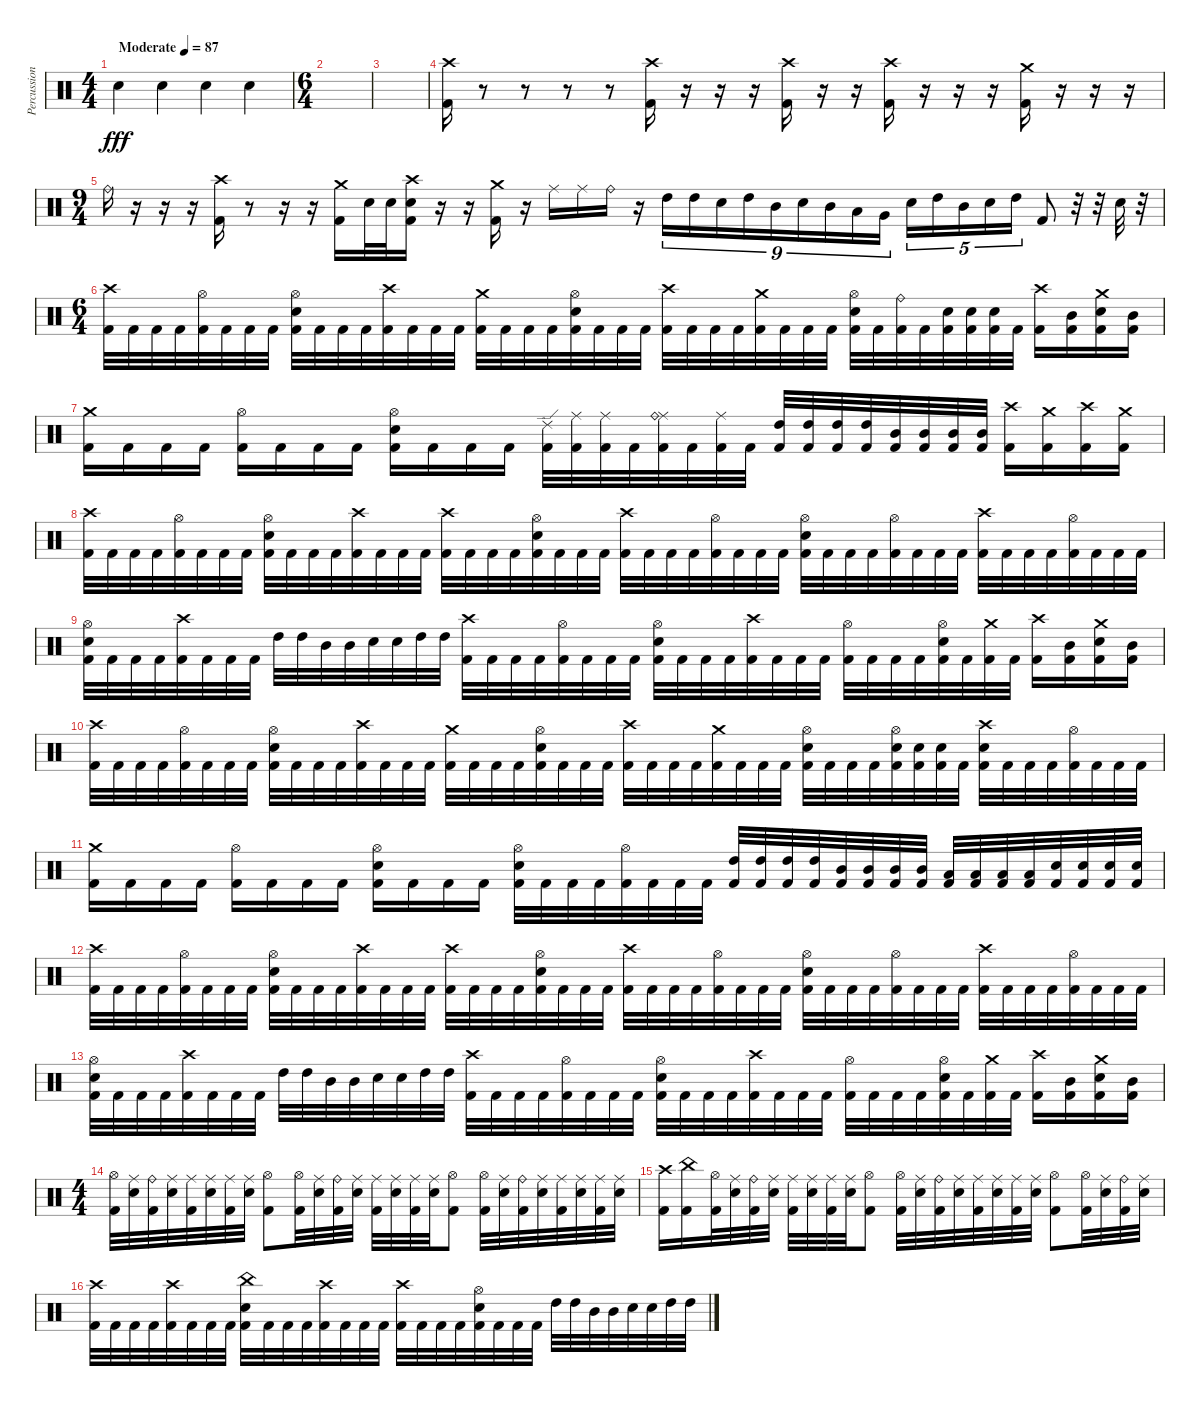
\track ("Percussion" "Percussion") {mute instrument percussion}
\staff {score}
\articulation defaults
\ts (4 4)
\tempo (87 "Moderate")
\clef neutral
\ks c "Electric Snare (hit)".4{dy fff} "Electric Snare (hit)".4 "Electric Snare (hit)".4 "Electric Snare (hit)".4
|
\ts (6 4)
|
|
("Crash high (hit)" "Kick (hit) 2").16 r.8 r.8 r.8 r.8 ("Crash high (hit)" "Kick (hit) 2").16 r.16 r.16 r.16 ("Crash high (hit)" "Kick (hit) 2").16 r.16 r.16 ("Crash high (hit)" "Kick (hit) 2").16 r.16 r.16 r.16 ("Crash medium (hit)" "Kick (hit) 2").16 r.16 r.16 r.16 |
\ts (9 4)
"Ride (bell)".16 r.16 r.16 r.16 ("Crash high (hit)" "Kick (hit) 2").16 r.8 r.16 r.16 ("Crash medium (hit)" "Kick (hit) 2").16 "Electric Snare (hit)".32 "Electric Snare (hit)".32 ("Electric Snare (hit)" "Crash high (hit)" "Kick (hit) 2").16 r.16 r.16 ("Crash medium (hit)" "Kick (hit) 2").16 r.16 "Ride (middle)".16 "Ride (middle)".16 "Ride (bell)".16 r.16 "High Tom (hit)".16{tu (9 8)} "High Tom (hit)".16{tu (9 8)} "Electric Snare (hit)".16{tu (9 8)} "High Tom (hit)".16{tu (9 8)} "Mid Tom (hit)".16{tu (9 8)} "Electric Snare (hit)".16{tu (9 8)} "Mid Tom (hit)".16{tu (9 8)} "Low Tom (hit)".16{tu (9 8)} "Very Low Tom (hit)".16{tu (9 8) beam splitsecondary} "Electric Snare (hit)".16{tu (5 4)} "High Tom (hit)".16{tu (5 4)} "Mid Tom (hit)".16{tu (5 4)} "Electric Snare (hit)".16{tu (5 4)} "High Tom (hit)".16{tu (5 4)} "Kick (hit) 2".8 r.32 r.32 "Electric Snare (hit)".32 r.32 |
\ts (6 4)
("Crash high (hit)" "Kick (hit) 2").32 "Kick (hit) 2".32 "Kick (hit) 2".32 "Kick (hit) 2".32 ("Hi-Hat (open)" "Kick (hit) 2").32 "Kick (hit) 2".32 "Kick (hit) 2".32 "Kick (hit) 2".32 ("Electric Snare (hit)" "Hi-Hat (open)" "Kick (hit) 2").32 "Kick (hit) 2".32 "Kick (hit) 2".32 "Kick (hit) 2".32 ("Crash high (hit)" "Kick (hit) 2").32 "Kick (hit) 2".32 "Kick (hit) 2".32 "Kick (hit) 2".32 ("Crash medium (hit)" "Kick (hit) 2").32 "Kick (hit) 2".32 "Kick (hit) 2".32 "Kick (hit) 2".32 ("Electric Snare (hit)" "Hi-Hat (open)" "Kick (hit) 2").32 "Kick (hit) 2".32 "Kick (hit) 2".32 "Kick (hit) 2".32 ("Crash high (hit)" "Kick (hit) 2").32 "Kick (hit) 2".32 "Kick (hit) 2".32 "Kick (hit) 2".32 ("Crash medium (hit)" "Kick (hit) 2").32 "Kick (hit) 2".32 "Kick (hit) 2".32 "Kick (hit) 2".32 ("Electric Snare (hit)" "Hi-Hat (open)" "Kick (hit) 2").32 "Kick (hit) 2".32 ("Ride (bell)" "Kick (hit) 2").32 "Kick (hit) 2".32 ("Electric Snare (hit)" "Kick (hit) 2").32 ("Electric Snare (hit)" "Kick (hit) 2").32 ("Electric Snare (hit)" "Kick (hit) 2").32 "Kick (hit) 2".32 ("Crash high (hit)" "Kick (hit) 2").16 ("Mid Tom (hit)" "Kick (hit) 2").16 ("Electric Snare (hit)" "Crash medium (hit)" "Kick (hit) 2").16 ("Mid Tom (hit)" "Kick (hit) 2").16 |
("Crash medium (hit)" "Kick (hit) 2").16 "Kick (hit) 2".16 "Kick (hit) 2".16 "Kick (hit) 2".16 ("Hi-Hat (open)" "Kick (hit) 2").16 "Kick (hit) 2".16 "Kick (hit) 2".16 "Kick (hit) 2".16 ("Electric Snare (hit)" "Hi-Hat (open)" "Kick (hit) 2").16 "Kick (hit) 2".16 "Kick (hit) 2".16 "Kick (hit) 2".16 ("Ride (edge) 2" "Kick (hit) 2").32 ("Ride (middle)" "Kick (hit) 2").32 ("Ride (middle)" "Kick (hit) 2").32 "Kick (hit) 2".32 ("Ride (middle)" "Ride (bell)" "Kick (hit) 2").32 "Kick (hit) 2".32 ("Ride (middle)" "Kick (hit) 2").32 "Kick (hit) 2".32 ("High Tom (hit)" "Kick (hit) 2").32 ("High Tom (hit)" "Kick (hit) 2").32 ("High Tom (hit)" "Kick (hit) 2").32 ("High Tom (hit)" "Kick (hit) 2").32 ("Mid Tom (hit)" "Kick (hit) 2").32 ("Mid Tom (hit)" "Kick (hit) 2").32 ("Mid Tom (hit)" "Kick (hit) 2").32 ("Mid Tom (hit)" "Kick (hit) 2").32 ("Crash high (hit)" "Kick (hit) 2").16 ("Crash medium (hit)" "Kick (hit) 2").16 ("Crash high (hit)" "Kick (hit) 2").16 ("Crash medium (hit)" "Kick (hit) 2").16 |
("Crash high (hit)" "Kick (hit) 2").32 "Kick (hit) 2".32 "Kick (hit) 2".32 "Kick (hit) 2".32 ("Hi-Hat (open)" "Kick (hit) 2").32 "Kick (hit) 2".32 "Kick (hit) 2".32 "Kick (hit) 2".32 ("Electric Snare (hit)" "Hi-Hat (open)" "Kick (hit) 2").32 "Kick (hit) 2".32 "Kick (hit) 2".32 "Kick (hit) 2".32 ("Crash high (hit)" "Kick (hit) 2").32 "Kick (hit) 2".32 "Kick (hit) 2".32 "Kick (hit) 2".32 ("Crash high (hit)" "Kick (hit) 2").32 "Kick (hit) 2".32 "Kick (hit) 2".32 "Kick (hit) 2".32 ("Electric Snare (hit)" "Hi-Hat (open)" "Kick (hit) 2").32 "Kick (hit) 2".32 "Kick (hit) 2".32 "Kick (hit) 2".32 ("Crash high (hit)" "Kick (hit) 2").32 "Kick (hit) 2".32 "Kick (hit) 2".32 "Kick (hit) 2".32 ("Hi-Hat (open)" "Kick (hit) 2").32 "Kick (hit) 2".32 "Kick (hit) 2".32 "Kick (hit) 2".32 ("Electric Snare (hit)" "Hi-Hat (open)" "Kick (hit) 2").32 "Kick (hit) 2".32 "Kick (hit) 2".32 "Kick (hit) 2".32 ("Hi-Hat (open)" "Kick (hit) 2").32 "Kick (hit) 2".32 "Kick (hit) 2".32 "Kick (hit) 2".32 ("Crash high (hit)" "Kick (hit) 2").32 "Kick (hit) 2".32 "Kick (hit) 2".32 "Kick (hit) 2".32 ("Hi-Hat (open)" "Kick (hit) 2").32 "Kick (hit) 2".32 "Kick (hit) 2".32 "Kick (hit) 2".32 |
("Electric Snare (hit)" "Hi-Hat (open)" "Kick (hit) 2").32 "Kick (hit) 2".32 "Kick (hit) 2".32 "Kick (hit) 2".32 ("Crash high (hit)" "Kick (hit) 2").32 "Kick (hit) 2".32 "Kick (hit) 2".32 "Kick (hit) 2".32 "High Tom (hit)".32 "High Tom (hit)".32 "Mid Tom (hit)".32 "Mid Tom (hit)".32 "Electric Snare (hit)".32 "Electric Snare (hit)".32 "High Tom (hit)".32 "High Tom (hit)".32 ("Crash high (hit)" "Kick (hit) 2").32 "Kick (hit) 2".32 "Kick (hit) 2".32 "Kick (hit) 2".32 ("Hi-Hat (open)" "Kick (hit) 2").32 "Kick (hit) 2".32 "Kick (hit) 2".32 "Kick (hit) 2".32 ("Electric Snare (hit)" "Hi-Hat (open)" "Kick (hit) 2").32 "Kick (hit) 2".32 "Kick (hit) 2".32 "Kick (hit) 2".32 ("Crash high (hit)" "Kick (hit) 2").32 "Kick (hit) 2".32 "Kick (hit) 2".32 "Kick (hit) 2".32 ("Hi-Hat (open)" "Kick (hit) 2").32 "Kick (hit) 2".32 "Kick (hit) 2".32 "Kick (hit) 2".32 ("Electric Snare (hit)" "Hi-Hat (open)" "Kick (hit) 2").32 "Kick (hit) 2".32 ("Crash medium (hit)" "Kick (hit) 2").32 "Kick (hit) 2".32 ("Crash high (hit)" "Kick (hit) 2").16 ("Mid Tom (hit)" "Kick (hit) 2").16 ("Electric Snare (hit)" "Crash medium (hit)" "Kick (hit) 2").16 ("Mid Tom (hit)" "Kick (hit) 2").16 |
("Crash high (hit)" "Kick (hit) 2").32 "Kick (hit) 2".32 "Kick (hit) 2".32 "Kick (hit) 2".32 ("Hi-Hat (open)" "Kick (hit) 2").32 "Kick (hit) 2".32 "Kick (hit) 2".32 "Kick (hit) 2".32 ("Electric Snare (hit)" "Hi-Hat (open)" "Kick (hit) 2").32 "Kick (hit) 2".32 "Kick (hit) 2".32 "Kick (hit) 2".32 ("Crash high (hit)" "Kick (hit) 2").32 "Kick (hit) 2".32 "Kick (hit) 2".32 "Kick (hit) 2".32 ("Crash medium (hit)" "Kick (hit) 2").32 "Kick (hit) 2".32 "Kick (hit) 2".32 "Kick (hit) 2".32 ("Electric Snare (hit)" "Hi-Hat (open)" "Kick (hit) 2").32 "Kick (hit) 2".32 "Kick (hit) 2".32 "Kick (hit) 2".32 ("Crash high (hit)" "Kick (hit) 2").32 "Kick (hit) 2".32 "Kick (hit) 2".32 "Kick (hit) 2".32 ("Crash medium (hit)" "Kick (hit) 2").32 "Kick (hit) 2".32 "Kick (hit) 2".32 "Kick (hit) 2".32 ("Electric Snare (hit)" "Hi-Hat (open)" "Kick (hit) 2").32 "Kick (hit) 2".32 "Kick (hit) 2".32 "Kick (hit) 2".32 ("Electric Snare (hit)" "Hi-Hat (open)" "Kick (hit) 2").32 ("Electric Snare (hit)" "Kick (hit) 2").32 ("Electric Snare (hit)" "Kick (hit) 2").32 "Kick (hit) 2".32 ("Electric Snare (hit)" "Crash high (hit)" "Kick (hit) 2").32 "Kick (hit) 2".32 "Kick (hit) 2".32 "Kick (hit) 2".32 ("Hi-Hat (open)" "Kick (hit) 2").32 "Kick (hit) 2".32 "Kick (hit) 2".32 "Kick (hit) 2".32 |
("Crash medium (hit)" "Kick (hit) 2").16 "Kick (hit) 2".16 "Kick (hit) 2".16 "Kick (hit) 2".16 ("Hi-Hat (open)" "Kick (hit) 2").16 "Kick (hit) 2".16 "Kick (hit) 2".16 "Kick (hit) 2".16 ("Electric Snare (hit)" "Hi-Hat (open)" "Kick (hit) 2").16 "Kick (hit) 2".16 "Kick (hit) 2".16 "Kick (hit) 2".16 ("Hi-Hat (open)" "Electric Snare (hit)" "Kick (hit) 2").32 "Kick (hit) 2".32 "Kick (hit) 2".32 "Kick (hit) 2".32 ("Hi-Hat (open)" "Kick (hit) 2").32 "Kick (hit) 2".32 "Kick (hit) 2".32 "Kick (hit) 2".32 ("High Tom (hit)" "Kick (hit) 2").32 ("High Tom (hit)" "Kick (hit) 2").32 ("High Tom (hit)" "Kick (hit) 2").32 ("High Tom (hit)" "Kick (hit) 2").32 ("Mid Tom (hit)" "Kick (hit) 2").32 ("Mid Tom (hit)" "Kick (hit) 2").32 ("Mid Tom (hit)" "Kick (hit) 2").32 ("Mid Tom (hit)" "Kick (hit) 2").32 ("Low Tom (hit)" "Kick (hit) 2").32 ("Low Tom (hit)" "Kick (hit) 2").32 ("Low Tom (hit)" "Kick (hit) 2").32 ("Low Tom (hit)" "Kick (hit) 2").32 ("Electric Snare (hit)" "Kick (hit) 2").32 ("Electric Snare (hit)" "Kick (hit) 2").32 ("Electric Snare (hit)" "Kick (hit) 2").32 ("Electric Snare (hit)" "Kick (hit) 2").32 |
("Crash high (hit)" "Kick (hit) 2").32 "Kick (hit) 2".32 "Kick (hit) 2".32 "Kick (hit) 2".32 ("Hi-Hat (open)" "Kick (hit) 2").32 "Kick (hit) 2".32 "Kick (hit) 2".32 "Kick (hit) 2".32 ("Electric Snare (hit)" "Hi-Hat (open)" "Kick (hit) 2").32 "Kick (hit) 2".32 "Kick (hit) 2".32 "Kick (hit) 2".32 ("Crash high (hit)" "Kick (hit) 2").32 "Kick (hit) 2".32 "Kick (hit) 2".32 "Kick (hit) 2".32 ("Crash high (hit)" "Kick (hit) 2").32 "Kick (hit) 2".32 "Kick (hit) 2".32 "Kick (hit) 2".32 ("Electric Snare (hit)" "Hi-Hat (open)" "Kick (hit) 2").32 "Kick (hit) 2".32 "Kick (hit) 2".32 "Kick (hit) 2".32 ("Crash high (hit)" "Kick (hit) 2").32 "Kick (hit) 2".32 "Kick (hit) 2".32 "Kick (hit) 2".32 ("Hi-Hat (open)" "Kick (hit) 2").32 "Kick (hit) 2".32 "Kick (hit) 2".32 "Kick (hit) 2".32 ("Electric Snare (hit)" "Hi-Hat (open)" "Kick (hit) 2").32 "Kick (hit) 2".32 "Kick (hit) 2".32 "Kick (hit) 2".32 ("Hi-Hat (open)" "Kick (hit) 2").32 "Kick (hit) 2".32 "Kick (hit) 2".32 "Kick (hit) 2".32 ("Crash high (hit)" "Kick (hit) 2").32 "Kick (hit) 2".32 "Kick (hit) 2".32 "Kick (hit) 2".32 ("Hi-Hat (open)" "Kick (hit) 2").32 "Kick (hit) 2".32 "Kick (hit) 2".32 "Kick (hit) 2".32 |
("Electric Snare (hit)" "Hi-Hat (open)" "Kick (hit) 2").32 "Kick (hit) 2".32 "Kick (hit) 2".32 "Kick (hit) 2".32 ("Crash high (hit)" "Kick (hit) 2").32 "Kick (hit) 2".32 "Kick (hit) 2".32 "Kick (hit) 2".32 "High Tom (hit)".32 "High Tom (hit)".32 "Mid Tom (hit)".32 "Mid Tom (hit)".32 "Electric Snare (hit)".32 "Electric Snare (hit)".32 "High Tom (hit)".32 "High Tom (hit)".32 ("Crash high (hit)" "Kick (hit) 2").32 "Kick (hit) 2".32 "Kick (hit) 2".32 "Kick (hit) 2".32 ("Hi-Hat (open)" "Kick (hit) 2").32 "Kick (hit) 2".32 "Kick (hit) 2".32 "Kick (hit) 2".32 ("Electric Snare (hit)" "Hi-Hat (open)" "Kick (hit) 2").32 "Kick (hit) 2".32 "Kick (hit) 2".32 "Kick (hit) 2".32 ("Crash high (hit)" "Kick (hit) 2").32 "Kick (hit) 2".32 "Kick (hit) 2".32 "Kick (hit) 2".32 ("Hi-Hat (open)" "Kick (hit) 2").32 "Kick (hit) 2".32 "Kick (hit) 2".32 "Kick (hit) 2".32 ("Electric Snare (hit)" "Hi-Hat (open)" "Kick (hit) 2").32 "Kick (hit) 2".32 ("Crash medium (hit)" "Kick (hit) 2").32 "Kick (hit) 2".32 ("Crash high (hit)" "Kick (hit) 2").16 ("Mid Tom (hit)" "Kick (hit) 2").16 ("Electric Snare (hit)" "Crash medium (hit)" "Kick (hit) 2").16 ("Mid Tom (hit)" "Kick (hit) 2").16 |
\ts (4 4)
("Kick (hit) 2" "Hi-Hat (open)").32 ("Electric Snare (hit)" "Ride (middle)").32 ("Kick (hit) 2" "Ride (bell)").32 ("Electric Snare (hit)" "Ride (middle)").32 ("Kick (hit) 2" "Ride (middle)").32 ("Electric Snare (hit)" "Ride (middle)").32 ("Kick (hit) 2" "Ride (middle)").32 ("Electric Snare (hit)" "Ride (middle)").32 ("Kick (hit) 2" "Hi-Hat (open)").8 ("Kick (hit) 2" "Hi-Hat (open)").32 ("Electric Snare (hit)" "Ride (middle)").32 ("Kick (hit) 2" "Ride (bell)").32 ("Electric Snare (hit)" "Ride (middle)").32 ("Kick (hit) 2" "Ride (middle)").32 ("Electric Snare (hit)" "Ride (middle)").32 ("Kick (hit) 2" "Ride (middle)").32 ("Electric Snare (hit)" "Ride (middle)").32 ("Kick (hit) 2" "Hi-Hat (open)").8 ("Kick (hit) 2" "Hi-Hat (open)").32 ("Electric Snare (hit)" "Ride (middle)").32 ("Kick (hit) 2" "Ride (bell)").32 ("Electric Snare (hit)" "Ride (middle)").32 ("Kick (hit) 2" "Ride (middle)").32 ("Electric Snare (hit)" "Ride (middle)").32 ("Kick (hit) 2" "Ride (middle)").32 ("Electric Snare (hit)" "Ride (middle)").32 |
("Kick (hit) 2" "Crash high (hit)").16 ("Kick (hit) 2" "China (hit)").16 ("Kick (hit) 2" "Hi-Hat (open)").32 ("Electric Snare (hit)" "Ride (middle)").32 ("Kick (hit) 2" "Ride (bell)").32 ("Electric Snare (hit)" "Ride (middle)").32 ("Kick (hit) 2" "Ride (middle)").32 ("Electric Snare (hit)" "Ride (middle)").32 ("Kick (hit) 2" "Ride (middle)").32 ("Electric Snare (hit)" "Ride (middle)").32 ("Kick (hit) 2" "Hi-Hat (open)").8 ("Kick (hit) 2" "Hi-Hat (open)").32 ("Electric Snare (hit)" "Ride (middle)").32 ("Kick (hit) 2" "Ride (bell)").32 ("Electric Snare (hit)" "Ride (middle)").32 ("Kick (hit) 2" "Ride (middle)").32 ("Electric Snare (hit)" "Ride (middle)").32 ("Kick (hit) 2" "Ride (middle)").32 ("Electric Snare (hit)" "Ride (middle)").32 ("Kick (hit) 2" "Hi-Hat (open)").8 ("Kick (hit) 2" "Hi-Hat (open)").32 ("Electric Snare (hit)" "Ride (middle)").32 ("Kick (hit) 2" "Ride (bell)").32 ("Electric Snare (hit)" "Ride (middle)").32 |
("Crash high (hit)" "Kick (hit) 2").32 "Kick (hit) 2".32 "Kick (hit) 2".32 "Kick (hit) 2".32 ("Crash high (hit)" "Kick (hit) 2").32 "Kick (hit) 2".32 "Kick (hit) 2".32 "Kick (hit) 2".32 ("Electric Snare (hit)" "China (hit)" "Kick (hit) 2").32 "Kick (hit) 2".32 "Kick (hit) 2".32 "Kick (hit) 2".32 ("Crash high (hit)" "Kick (hit) 2").32 "Kick (hit) 2".32 "Kick (hit) 2".32 "Kick (hit) 2".32 ("Crash high (hit)" "Kick (hit) 2").32 "Kick (hit) 2".32 "Kick (hit) 2".32 "Kick (hit) 2".32 ("Electric Snare (hit)" "Hi-Hat (open)" "Kick (hit) 2").32 "Kick (hit) 2".32 "Kick (hit) 2".32 "Kick (hit) 2".32 "High Tom (hit)".32 "High Tom (hit)".32 "Mid Tom (hit)".32 "Mid Tom (hit)".32 "Electric Snare (hit)".32 "Electric Snare (hit)".32 "High Tom (hit)".32 "High Tom (hit)".32
